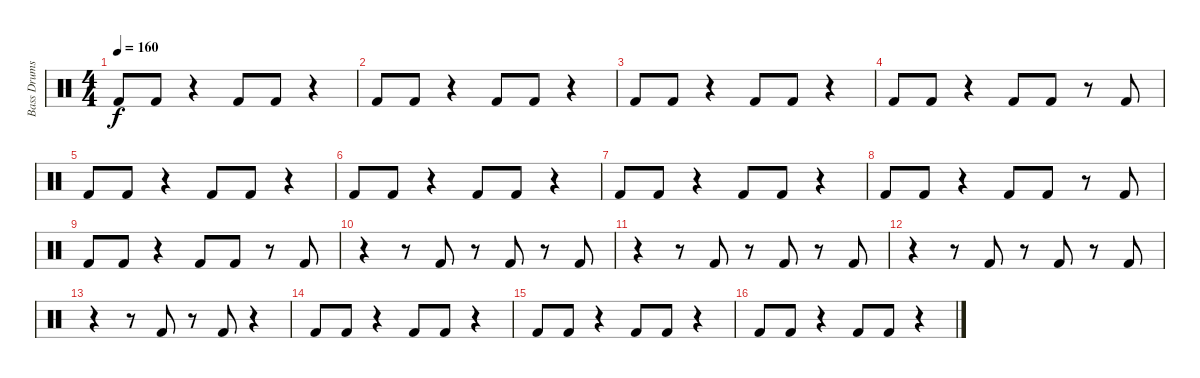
\track ("Bass Drums" "Bass Drums") {instrument percussion}
\staff {score}
\articulation defaults
\ts (4 4)
\tempo 160
\clef neutral
\ks c "Kick (hit) 2".8{dy f} "Kick (hit) 2".8
r.4 "Kick (hit) 2".8 "Kick (hit) 2".8 r.4 |
"Kick (hit) 2".8 "Kick (hit) 2".8 r.4 "Kick (hit) 2".8 "Kick (hit) 2".8 r.4 |
"Kick (hit) 2".8 "Kick (hit) 2".8 r.4 "Kick (hit) 2".8 "Kick (hit) 2".8 r.4 |
"Kick (hit) 2".8 "Kick (hit) 2".8 r.4 "Kick (hit) 2".8 "Kick (hit) 2".8 r.8 "Kick (hit) 2".8 |
"Kick (hit) 2".8 "Kick (hit) 2".8 r.4 "Kick (hit) 2".8 "Kick (hit) 2".8 r.4 |
"Kick (hit) 2".8 "Kick (hit) 2".8 r.4 "Kick (hit) 2".8 "Kick (hit) 2".8 r.4 |
"Kick (hit) 2".8 "Kick (hit) 2".8 r.4 "Kick (hit) 2".8 "Kick (hit) 2".8 r.4 |
"Kick (hit) 2".8 "Kick (hit) 2".8 r.4 "Kick (hit) 2".8 "Kick (hit) 2".8 r.8 "Kick (hit) 2".8 |
"Kick (hit) 2".8 "Kick (hit) 2".8 r.4 "Kick (hit) 2".8 "Kick (hit) 2".8 r.8 "Kick (hit) 2".8 |
r.4 r.8 "Kick (hit) 2".8 r.8 "Kick (hit) 2".8 r.8 "Kick (hit) 2".8 |
r.4 r.8 "Kick (hit) 2".8 r.8 "Kick (hit) 2".8 r.8 "Kick (hit) 2".8 |
r.4 r.8 "Kick (hit) 2".8 r.8 "Kick (hit) 2".8 r.8 "Kick (hit) 2".8 |
r.4 r.8 "Kick (hit) 2".8 r.8 "Kick (hit) 2".8 r.4 |
"Kick (hit) 2".8 "Kick (hit) 2".8 r.4 "Kick (hit) 2".8 "Kick (hit) 2".8 r.4 |
"Kick (hit) 2".8 "Kick (hit) 2".8 r.4 "Kick (hit) 2".8 "Kick (hit) 2".8 r.4 |
"Kick (hit) 2".8 "Kick (hit) 2".8 r.4 "Kick (hit) 2".8 "Kick (hit) 2".8 r.4
